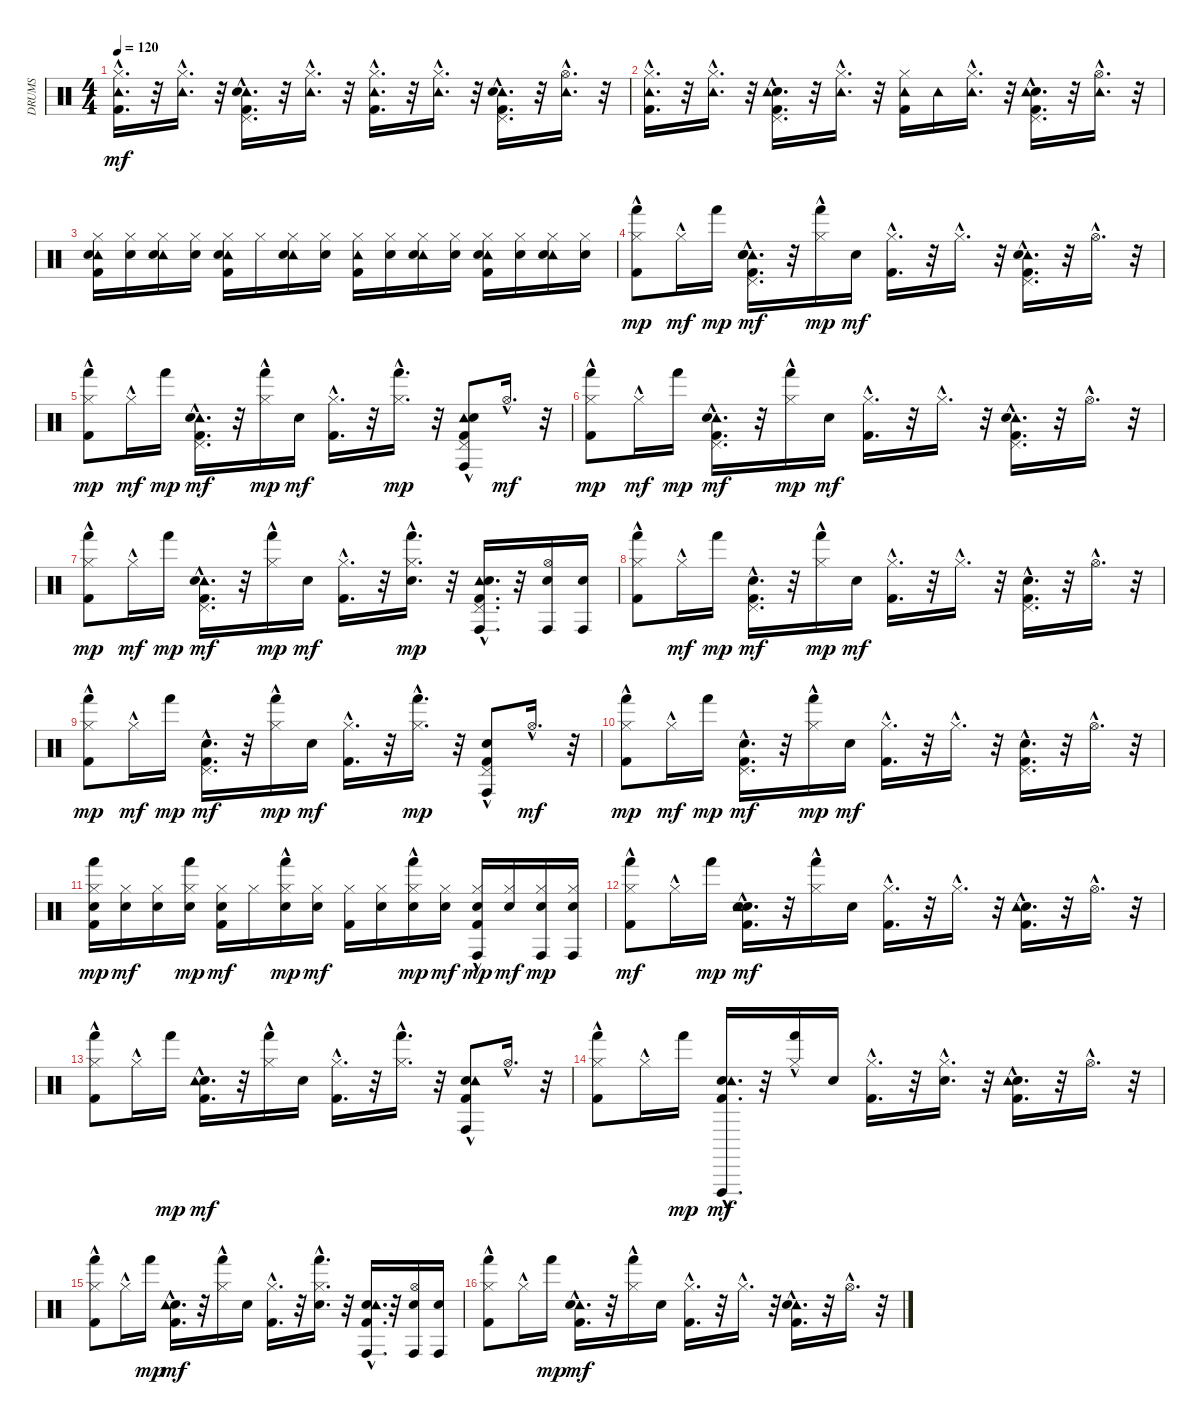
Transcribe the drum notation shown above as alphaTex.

\track ("DRUMS" "DRUMS") {instrument percussion}
\staff {score}
\articulation defaults
\ts (4 4)
\tempo 120
\clef neutral
\ks c
("Hi-Hat (closed)"{hac} "Kick (hit) 2"{hac} "Tambourine (hit)"{hac}).16{d dy mf} r.32 ("Hi-Hat (closed)"{hac} "Tambourine (hit)"{hac}).16{d} r.32 ("Pedal Hi-Hat (hit)"{hac} "Kick (hit) 2"{hac} "Tambourine (hit)"{hac} "Hand Clap (hit)"{hac}).16{d} r.32 ("Hi-Hat (closed)"{hac} "Tambourine (hit)"{hac}).16{d} r.32 ("Hi-Hat (closed)"{hac} "Kick (hit) 2"{hac} "Tambourine (hit)"{hac}).16{d} r.32 ("Hi-Hat (closed)"{hac} "Tambourine (hit)"{hac}).16{d} r.32 ("Pedal Hi-Hat (hit)"{hac} "Kick (hit) 2"{hac} "Tambourine (hit)"{hac} "Hand Clap (hit)"{hac}).16{d} r.32 ("Hi-Hat (open)"{hac} "Tambourine (hit)"{hac}).16{d} r.32 |
("Tambourine (hit)"{hac} "Kick (hit) 2"{hac} "Hi-Hat (closed)"{hac}).16{d} r.32 ("Tambourine (hit)"{hac} "Hi-Hat (closed)"{hac}).16{d} r.32 ("Pedal Hi-Hat (hit)"{hac} "Hand Clap (hit)"{hac} "Tambourine (hit)"{hac} "Kick (hit) 2"{hac}).16{d} r.32 ("Tambourine (hit)"{hac} "Hi-Hat (closed)"{hac}).16{d} r.32 ("Tambourine (hit)" "Kick (hit) 2" "Hi-Hat (closed)").16 "Tambourine (hit)".16 ("Tambourine (hit)"{hac} "Hi-Hat (closed)"{hac}).16{d} r.32 ("Pedal Hi-Hat (hit)"{hac} "Hand Clap (hit)"{hac} "Tambourine (hit)"{hac} "Kick (hit) 2"{hac}).16{d} r.32 ("Tambourine (hit)"{hac} "Hi-Hat (open)"{hac}).16{d} r.32 |
("Tambourine (hit)" "Hi-Hat (closed)" "Kick (hit) 2" "Electric Snare (hit)").16 ("Hi-Hat (closed)" "Electric Snare (hit)").16 ("Tambourine (hit)" "Electric Snare (hit)" "Hi-Hat (closed)").16 ("Hi-Hat (closed)" "Electric Snare (hit)").16 ("Tambourine (hit)" "Electric Snare (hit)" "Kick (hit) 2" "Hi-Hat (closed)").16 "Hi-Hat (closed)".16 ("Tambourine (hit)" "Hi-Hat (closed)" "Electric Snare (hit)").16 ("Electric Snare (hit)" "Hi-Hat (closed)").16 ("Tambourine (hit)" "Kick (hit) 2" "Hi-Hat (closed)").16 ("Electric Snare (hit)" "Hi-Hat (closed)").16 ("Tambourine (hit)" "Electric Snare (hit)" "Hi-Hat (closed)").16 ("Electric Snare (hit)" "Hi-Hat (closed)").16 ("Tambourine (hit)" "Electric Snare (hit)" "Kick (hit) 2" "Hi-Hat (closed)").16 ("Electric Snare (hit)" "Hi-Hat (closed)").16 ("Tambourine (hit)" "Hi-Hat (closed)" "Electric Snare (hit)").16 ("Hi-Hat (closed)" "Electric Snare (hit)").16 |
("Kick (hit) 2"{hac} "Hi-Hat (closed)"{hac} "Hand (hit)").8{dy mp} "Hi-Hat (closed)"{hac}.16{dy mf} "Hand (hit)".16{dy mp} ("Pedal Hi-Hat (hit)"{hac} "Tambourine (hit)"{hac} "Hand Clap (hit)"{hac} "Kick (hit) 2"{hac} "Electric Snare (hit)"{hac}).16{d dy mf} r.32 ("Hi-Hat (closed)" "Hand (hit)"{hac}).16{dy mp} "Electric Snare (hit)".16{dy mf} ("Kick (hit) 2"{hac} "Hi-Hat (closed)"{hac}).16{d} r.32 "Hi-Hat (closed)"{hac}.16{d} r.32 ("Pedal Hi-Hat (hit)"{hac} "Tambourine (hit)"{hac} "Kick (hit) 2"{hac} "Electric Snare (hit)"{hac}).16{d} r.32 "Hi-Hat (open)"{hac}.16{d} r.32 |
("Hi-Hat (closed)"{hac} "Kick (hit) 2"{hac} "Hand (hit)").8{dy mp} "Hi-Hat (closed)"{hac}.16{dy mf} "Hand (hit)".16{dy mp} ("Pedal Hi-Hat (hit)"{hac} "Tambourine (hit)"{hac} "Electric Snare (hit)"{hac} "Kick (hit) 2"{hac}).16{d dy mf} r.32 ("Hi-Hat (closed)" "Hand (hit)"{hac}).16{dy mp} "Electric Snare (hit)".16{dy mf} ("Hi-Hat (closed)"{hac} "Kick (hit) 2"{hac}).16{d} r.32 ("Hi-Hat (closed)"{hac} "Hand (hit)"{hac}).16{d dy mp} r.32 ("Pedal Hi-Hat (hit)"{hac} "Tambourine (hit)"{hac} "Electric Snare (hit)"{hac} "Kick (hit) 2"{hac} "Conga high (hit)"{hac}).8 "Hi-Hat (open)"{hac}.16{d dy mf} r.32 |
("Hi-Hat (closed)"{hac} "Kick (hit) 2"{hac} "Hand (hit)").8{dy mp} "Hi-Hat (closed)"{hac}.16{dy mf} "Hand (hit)".16{dy mp} ("Pedal Hi-Hat (hit)"{hac} "Tambourine (hit)"{hac} "Electric Snare (hit)"{hac} "Kick (hit) 2"{hac}).16{d dy mf} r.32 ("Hi-Hat (closed)" "Hand (hit)"{hac}).16{dy mp} "Electric Snare (hit)".16{dy mf} ("Hi-Hat (closed)"{hac} "Kick (hit) 2"{hac}).16{d} r.32 "Hi-Hat (closed)"{hac}.16{d} r.32 ("Pedal Hi-Hat (hit)"{hac} "Tambourine (hit)"{hac} "Electric Snare (hit)"{hac} "Kick (hit) 2"{hac}).16{d} r.32 "Hi-Hat (open)"{hac}.16{d} r.32 |
("Hi-Hat (closed)"{hac} "Kick (hit) 2"{hac} "Hand (hit)").8{dy mp} "Hi-Hat (closed)"{hac}.16{dy mf} "Hand (hit)".16{dy mp} ("Pedal Hi-Hat (hit)"{hac} "Tambourine (hit)"{hac} "Electric Snare (hit)"{hac} "Kick (hit) 2"{hac}).16{d dy mf} r.32 ("Hi-Hat (closed)" "Hand (hit)"{hac}).16{dy mp} "Electric Snare (hit)".16{dy mf} ("Hi-Hat (closed)"{hac} "Kick (hit) 2"{hac}).16{d} r.32 ("Hi-Hat (closed)"{hac} "Electric Snare (hit)"{hac} "Hand (hit)"{hac}).16{d dy mp} r.32 ("Pedal Hi-Hat (hit)"{hac} "Tambourine (hit)"{hac} "Electric Snare (hit)"{hac} "Kick (hit) 2"{hac} "Conga high (hit)"{hac}).16{d} r.32 ("Hi-Hat (open)" "Electric Snare (hit)" "Conga high (hit)").16 ("Electric Snare (hit)" "Conga high (hit)").16 |
("Hi-Hat (closed)"{hac} "Kick (hit) 2"{hac} "Hand (hit)").8 "Hi-Hat (closed)"{hac}.16{dy mf} "Hand (hit)".16{dy mp} ("Pedal Hi-Hat (hit)"{hac} "Electric Snare (hit)"{hac} "Kick (hit) 2"{hac}).16{d dy mf} r.32 ("Hi-Hat (closed)" "Hand (hit)"{hac}).16{dy mp} "Electric Snare (hit)".16{dy mf} ("Hi-Hat (closed)"{hac} "Kick (hit) 2"{hac}).16{d} r.32 "Hi-Hat (closed)"{hac}.16{d} r.32 ("Pedal Hi-Hat (hit)"{hac} "Electric Snare (hit)"{hac} "Kick (hit) 2"{hac}).16{d} r.32 "Hi-Hat (open)"{hac}.16{d} r.32 |
("Kick (hit) 2"{hac} "Hi-Hat (closed)"{hac} "Hand (hit)").8{dy mp} "Hi-Hat (closed)"{hac}.16{dy mf} "Hand (hit)".16{dy mp} ("Pedal Hi-Hat (hit)"{hac} "Kick (hit) 2"{hac} "Electric Snare (hit)"{hac}).16{d dy mf} r.32 ("Hi-Hat (closed)" "Hand (hit)"{hac}).16{dy mp} "Electric Snare (hit)".16{dy mf} ("Kick (hit) 2"{hac} "Hi-Hat (closed)"{hac}).16{d} r.32 ("Hi-Hat (closed)"{hac} "Hand (hit)"{hac}).16{d dy mp} r.32 ("Pedal Hi-Hat (hit)"{hac} "Kick (hit) 2"{hac} "Electric Snare (hit)"{hac} "Conga high (hit)"{hac}).8 "Hi-Hat (open)"{hac}.16{d dy mf} r.32 |
("Kick (hit) 2"{hac} "Hi-Hat (closed)"{hac} "Hand (hit)").8{dy mp} "Hi-Hat (closed)"{hac}.16{dy mf} "Hand (hit)".16{dy mp} ("Pedal Hi-Hat (hit)"{hac} "Kick (hit) 2"{hac} "Electric Snare (hit)"{hac}).16{d dy mf} r.32 ("Hi-Hat (closed)" "Hand (hit)"{hac}).16{dy mp} "Electric Snare (hit)".16{dy mf} ("Kick (hit) 2"{hac} "Hi-Hat (closed)"{hac}).16{d} r.32 "Hi-Hat (closed)"{hac}.16{d} r.32 ("Pedal Hi-Hat (hit)"{hac} "Kick (hit) 2"{hac} "Electric Snare (hit)"{hac}).16{d} r.32 "Hi-Hat (open)"{hac}.16{d} r.32 |
("Electric Snare (hit)" "Kick (hit) 2" "Hi-Hat (closed)" "Hand (hit)").16{dy mp} ("Electric Snare (hit)" "Hi-Hat (closed)").16{dy mf} ("Electric Snare (hit)" "Hi-Hat (closed)").16 ("Electric Snare (hit)" "Hi-Hat (closed)" "Hand (hit)").16{dy mp} ("Hi-Hat (closed)" "Kick (hit) 2" "Electric Snare (hit)").16{dy mf} "Hi-Hat (closed)".16 ("Electric Snare (hit)" "Hi-Hat (closed)" "Hand (hit)"{hac}).16{dy mp} ("Hi-Hat (closed)" "Electric Snare (hit)").16{dy mf} ("Hi-Hat (closed)" "Kick (hit) 2").16 ("Hi-Hat (closed)" "Electric Snare (hit)").16 ("Electric Snare (hit)" "Hi-Hat (closed)" "Hand (hit)"{hac}).16{dy mp} ("Hi-Hat (closed)" "Electric Snare (hit)").16{dy mf} ("Electric Snare (hit)" "Hi-Hat (closed)" "Kick (hit) 2" "Conga high (hit)"{hac}).16{dy mp} ("Hi-Hat (closed)" "Electric Snare (hit)").16{dy mf} ("Electric Snare (hit)" "Hi-Hat (closed)" "Conga high (hit)").16{dy mp} ("Electric Snare (hit)" "Hi-Hat (closed)" "Conga high (hit)").16 |
("Hand (hit)" "Hi-Hat (closed)"{hac} "Kick (hit) 2"{hac}).8{dy mf} "Hi-Hat (closed)"{hac}.16 "Hand (hit)".16{dy mp} ("Electric Snare (hit)"{hac} "Kick (hit) 2"{hac} "Hand Clap (hit)"{hac} "Tambourine (hit)"{hac}).16{d dy mf} r.32 ("Hand (hit)"{hac} "Hi-Hat (closed)").16 "Electric Snare (hit)".16 ("Hi-Hat (closed)"{hac} "Kick (hit) 2"{hac}).16{d} r.32 "Hi-Hat (closed)"{hac}.16{d} r.32 ("Electric Snare (hit)"{hac} "Kick (hit) 2"{hac} "Tambourine (hit)"{hac}).16{d} r.32 "Hi-Hat (open)"{hac}.16{d} r.32 |
("Hand (hit)" "Kick (hit) 2"{hac} "Hi-Hat (closed)"{hac}).8 "Hi-Hat (closed)"{hac}.16 "Hand (hit)".16{dy mp} ("Kick (hit) 2"{hac} "Electric Snare (hit)"{hac} "Tambourine (hit)"{hac}).16{d dy mf} r.32 ("Hand (hit)"{hac} "Hi-Hat (closed)").16 "Electric Snare (hit)".16 ("Kick (hit) 2"{hac} "Hi-Hat (closed)"{hac}).16{d} r.32 ("Hand (hit)"{hac} "Hi-Hat (closed)"{hac}).16{d} r.32 ("Conga high (hit)"{hac} "Kick (hit) 2"{hac} "Electric Snare (hit)"{hac} "Tambourine (hit)"{hac}).8 "Hi-Hat (open)"{hac}.16{d} r.32 |
("Hand (hit)" "Kick (hit) 2"{hac} "Hi-Hat (closed)"{hac}).8 "Hi-Hat (closed)"{hac}.16 "Hand (hit)".16{dy mp} ("Vibraslap (hit)"{hac} "Kick (hit) 2"{hac} "Electric Snare (hit)"{hac} "Tambourine (hit)"{hac}).16{d dy mf} r.32 ("Hand (hit)"{hac} "Hi-Hat (closed)").16 "Electric Snare (hit)".16 ("Hi-Hat (closed)"{hac} "Kick (hit) 2"{hac}).16{d} r.32 ("Electric Snare (hit)"{hac} "Hi-Hat (closed)"{hac}).16{d} r.32 ("Hand Clap (hit)"{hac} "Kick (hit) 2"{hac} "Tambourine (hit)"{hac}).16{d} r.32 "Hi-Hat (open)"{hac}.16{d} r.32 |
("Hand (hit)" "Kick (hit) 2"{hac} "Hi-Hat (closed)"{hac}).8 "Hi-Hat (closed)"{hac}.16 "Hand (hit)".16{dy mp} ("Kick (hit) 2"{hac} "Electric Snare (hit)"{hac} "Tambourine (hit)"{hac}).16{d dy mf} r.32 ("Hand (hit)"{hac} "Hi-Hat (closed)").16 "Electric Snare (hit)".16 ("Kick (hit) 2"{hac} "Hi-Hat (closed)"{hac}).16{d} r.32 ("Hand (hit)"{hac} "Electric Snare (hit)"{hac} "Hi-Hat (closed)"{hac}).16{d} r.32 ("Conga high (hit)"{hac} "Kick (hit) 2"{hac} "Electric Snare (hit)"{hac} "Tambourine (hit)"{hac}).16{d} r.32 ("Conga high (hit)" "Electric Snare (hit)" "Hi-Hat (open)").16 ("Conga high (hit)" "Electric Snare (hit)").16 |
("Hand (hit)" "Kick (hit) 2"{hac} "Hi-Hat (closed)"{hac}).8 "Hi-Hat (closed)"{hac}.16 "Hand (hit)".16{dy mp} ("Tambourine (hit)"{hac} "Kick (hit) 2"{hac} "Electric Snare (hit)"{hac}).16{d dy mf} r.32 ("Hand (hit)"{hac} "Hi-Hat (closed)").16 "Electric Snare (hit)".16 ("Kick (hit) 2"{hac} "Hi-Hat (closed)"{hac}).16{d} r.32 "Hi-Hat (closed)"{hac}.16{d} r.32 ("Tambourine (hit)"{hac} "Kick (hit) 2"{hac} "Electric Snare (hit)"{hac}).16{d} r.32 "Hi-Hat (open)"{hac}.16{d} r.32
